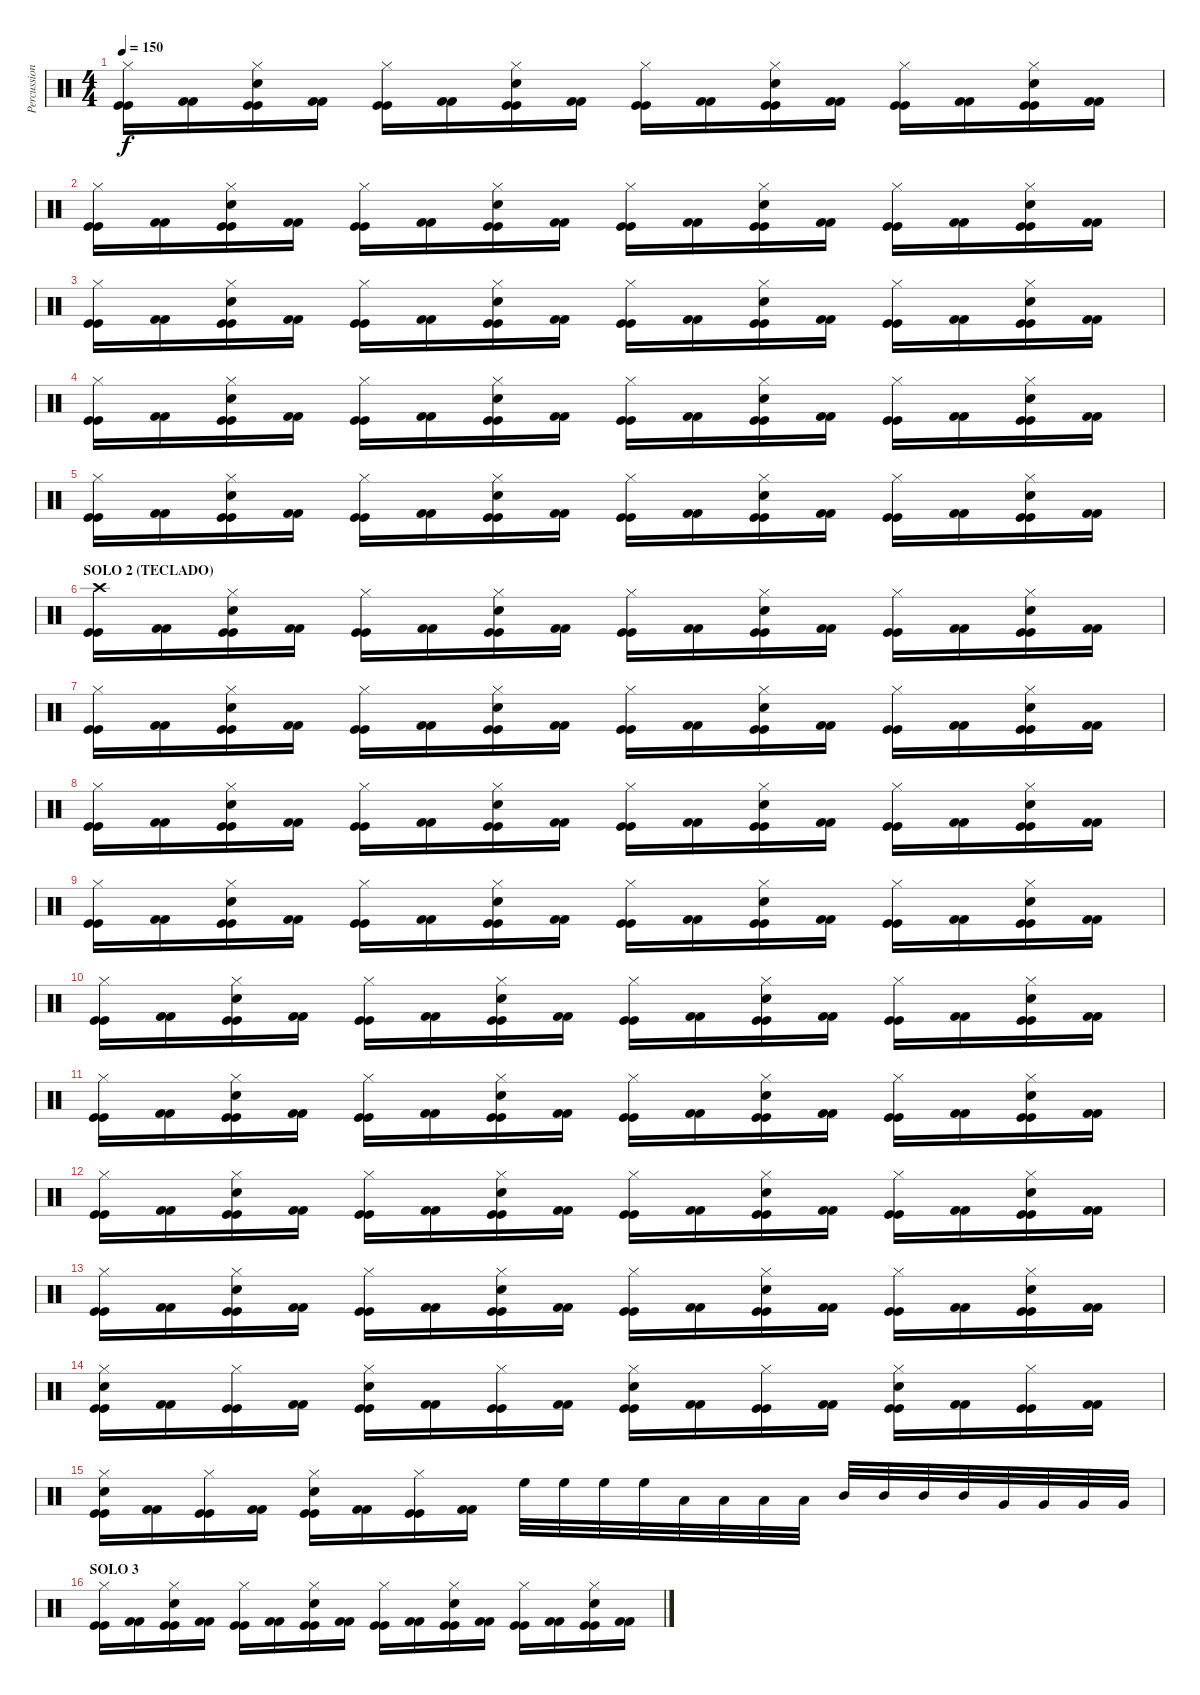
\track ("Percussion" "Percussion") {instrument percussion}
\staff {score}
\articulation defaults
\ts (4 4)
\tempo 150
\clef neutral
\ks c
("Hi-Hat (closed)" "Kick (hit)" "Kick (hit)").16{dy f} ("Kick (hit) 2" "Kick (hit) 2").16 ("Hi-Hat (closed)" "Electric Snare (hit)" "Kick (hit)" "Kick (hit)").16 ("Kick (hit) 2" "Kick (hit) 2").16 ("Hi-Hat (closed)" "Kick (hit)" "Kick (hit)").16 ("Kick (hit) 2" "Kick (hit) 2").16 ("Hi-Hat (closed)" "Electric Snare (hit)" "Kick (hit)" "Kick (hit)").16 ("Kick (hit) 2" "Kick (hit) 2").16 ("Hi-Hat (closed)" "Kick (hit)" "Kick (hit)").16 ("Kick (hit) 2" "Kick (hit) 2").16 ("Hi-Hat (closed)" "Electric Snare (hit)" "Kick (hit)" "Kick (hit)").16 ("Kick (hit) 2" "Kick (hit) 2").16 ("Hi-Hat (closed)" "Kick (hit)" "Kick (hit)").16 ("Kick (hit) 2" "Kick (hit) 2").16 ("Hi-Hat (closed)" "Electric Snare (hit)" "Kick (hit)" "Kick (hit)").16 ("Kick (hit) 2" "Kick (hit) 2").16 |
("Hi-Hat (closed)" "Kick (hit)" "Kick (hit)").16 ("Kick (hit) 2" "Kick (hit) 2").16 ("Hi-Hat (closed)" "Electric Snare (hit)" "Kick (hit)" "Kick (hit)").16 ("Kick (hit) 2" "Kick (hit) 2").16 ("Hi-Hat (closed)" "Kick (hit)" "Kick (hit)").16 ("Kick (hit) 2" "Kick (hit) 2").16 ("Hi-Hat (closed)" "Electric Snare (hit)" "Kick (hit)" "Kick (hit)").16 ("Kick (hit) 2" "Kick (hit) 2").16 ("Hi-Hat (closed)" "Kick (hit)" "Kick (hit)").16 ("Kick (hit) 2" "Kick (hit) 2").16 ("Hi-Hat (closed)" "Electric Snare (hit)" "Kick (hit)" "Kick (hit)").16 ("Kick (hit) 2" "Kick (hit) 2").16 ("Hi-Hat (closed)" "Kick (hit)" "Kick (hit)").16 ("Kick (hit) 2" "Kick (hit) 2").16 ("Hi-Hat (closed)" "Electric Snare (hit)" "Kick (hit)" "Kick (hit)").16 ("Kick (hit) 2" "Kick (hit) 2").16 |
("Hi-Hat (closed)" "Kick (hit)" "Kick (hit)").16 ("Kick (hit) 2" "Kick (hit) 2").16 ("Hi-Hat (closed)" "Electric Snare (hit)" "Kick (hit)" "Kick (hit)").16 ("Kick (hit) 2" "Kick (hit) 2").16 ("Hi-Hat (closed)" "Kick (hit)" "Kick (hit)").16 ("Kick (hit) 2" "Kick (hit) 2").16 ("Hi-Hat (closed)" "Electric Snare (hit)" "Kick (hit)" "Kick (hit)").16 ("Kick (hit) 2" "Kick (hit) 2").16 ("Hi-Hat (closed)" "Kick (hit)" "Kick (hit)").16 ("Kick (hit) 2" "Kick (hit) 2").16 ("Hi-Hat (closed)" "Electric Snare (hit)" "Kick (hit)" "Kick (hit)").16 ("Kick (hit) 2" "Kick (hit) 2").16 ("Hi-Hat (closed)" "Kick (hit)" "Kick (hit)").16 ("Kick (hit) 2" "Kick (hit) 2").16 ("Hi-Hat (closed)" "Electric Snare (hit)" "Kick (hit)" "Kick (hit)").16 ("Kick (hit) 2" "Kick (hit) 2").16 |
("Hi-Hat (closed)" "Kick (hit)" "Kick (hit)").16 ("Kick (hit) 2" "Kick (hit) 2").16 ("Hi-Hat (closed)" "Electric Snare (hit)" "Kick (hit)" "Kick (hit)").16 ("Kick (hit) 2" "Kick (hit) 2").16 ("Hi-Hat (closed)" "Kick (hit)" "Kick (hit)").16 ("Kick (hit) 2" "Kick (hit) 2").16 ("Hi-Hat (closed)" "Electric Snare (hit)" "Kick (hit)" "Kick (hit)").16 ("Kick (hit) 2" "Kick (hit) 2").16 ("Hi-Hat (closed)" "Kick (hit)" "Kick (hit)").16 ("Kick (hit) 2" "Kick (hit) 2").16 ("Hi-Hat (closed)" "Electric Snare (hit)" "Kick (hit)" "Kick (hit)").16 ("Kick (hit) 2" "Kick (hit) 2").16 ("Hi-Hat (closed)" "Kick (hit)" "Kick (hit)").16 ("Kick (hit) 2" "Kick (hit) 2").16 ("Hi-Hat (closed)" "Electric Snare (hit)" "Kick (hit)" "Kick (hit)").16 ("Kick (hit) 2" "Kick (hit) 2").16 |
("Hi-Hat (closed)" "Kick (hit)" "Kick (hit)").16 ("Kick (hit) 2" "Kick (hit) 2").16 ("Hi-Hat (closed)" "Electric Snare (hit)" "Kick (hit)" "Kick (hit)").16 ("Kick (hit) 2" "Kick (hit) 2").16 ("Hi-Hat (closed)" "Kick (hit)" "Kick (hit)").16 ("Kick (hit) 2" "Kick (hit) 2").16 ("Hi-Hat (closed)" "Electric Snare (hit)" "Kick (hit)" "Kick (hit)").16 ("Kick (hit) 2" "Kick (hit) 2").16 ("Hi-Hat (closed)" "Kick (hit)" "Kick (hit)").16 ("Kick (hit) 2" "Kick (hit) 2").16 ("Hi-Hat (closed)" "Electric Snare (hit)" "Kick (hit)" "Kick (hit)").16 ("Kick (hit) 2" "Kick (hit) 2").16 ("Hi-Hat (closed)" "Kick (hit)" "Kick (hit)").16 ("Kick (hit) 2" "Kick (hit) 2").16 ("Hi-Hat (closed)" "Electric Snare (hit)" "Kick (hit)" "Kick (hit)").16 ("Kick (hit) 2" "Kick (hit) 2").16 |
\section ("" "SOLO 2 (TECLADO)")
("Crash high (hit)" "Kick (hit)" "Kick (hit)").16 ("Kick (hit) 2" "Kick (hit) 2").16 ("Hi-Hat (closed)" "Electric Snare (hit)" "Kick (hit)" "Kick (hit)").16 ("Kick (hit) 2" "Kick (hit) 2").16 ("Hi-Hat (closed)" "Kick (hit)" "Kick (hit)").16 ("Kick (hit) 2" "Kick (hit) 2").16 ("Hi-Hat (closed)" "Electric Snare (hit)" "Kick (hit)" "Kick (hit)").16 ("Kick (hit) 2" "Kick (hit) 2").16 ("Hi-Hat (closed)" "Kick (hit)" "Kick (hit)").16 ("Kick (hit) 2" "Kick (hit) 2").16 ("Hi-Hat (closed)" "Electric Snare (hit)" "Kick (hit)" "Kick (hit)").16 ("Kick (hit) 2" "Kick (hit) 2").16 ("Hi-Hat (closed)" "Kick (hit)" "Kick (hit)").16 ("Kick (hit) 2" "Kick (hit) 2").16 ("Hi-Hat (closed)" "Electric Snare (hit)" "Kick (hit)" "Kick (hit)").16 ("Kick (hit) 2" "Kick (hit) 2").16 |
("Hi-Hat (closed)" "Kick (hit)" "Kick (hit)").16 ("Kick (hit) 2" "Kick (hit) 2").16 ("Hi-Hat (closed)" "Electric Snare (hit)" "Kick (hit)" "Kick (hit)").16 ("Kick (hit) 2" "Kick (hit) 2").16 ("Hi-Hat (closed)" "Kick (hit)" "Kick (hit)").16 ("Kick (hit) 2" "Kick (hit) 2").16 ("Hi-Hat (closed)" "Electric Snare (hit)" "Kick (hit)" "Kick (hit)").16 ("Kick (hit) 2" "Kick (hit) 2").16 ("Hi-Hat (closed)" "Kick (hit)" "Kick (hit)").16 ("Kick (hit) 2" "Kick (hit) 2").16 ("Hi-Hat (closed)" "Electric Snare (hit)" "Kick (hit)" "Kick (hit)").16 ("Kick (hit) 2" "Kick (hit) 2").16 ("Hi-Hat (closed)" "Kick (hit)" "Kick (hit)").16 ("Kick (hit) 2" "Kick (hit) 2").16 ("Hi-Hat (closed)" "Electric Snare (hit)" "Kick (hit)" "Kick (hit)").16 ("Kick (hit) 2" "Kick (hit) 2").16 |
("Hi-Hat (closed)" "Kick (hit)" "Kick (hit)").16 ("Kick (hit) 2" "Kick (hit) 2").16 ("Hi-Hat (closed)" "Electric Snare (hit)" "Kick (hit)" "Kick (hit)").16 ("Kick (hit) 2" "Kick (hit) 2").16 ("Hi-Hat (closed)" "Kick (hit)" "Kick (hit)").16 ("Kick (hit) 2" "Kick (hit) 2").16 ("Hi-Hat (closed)" "Electric Snare (hit)" "Kick (hit)" "Kick (hit)").16 ("Kick (hit) 2" "Kick (hit) 2").16 ("Hi-Hat (closed)" "Kick (hit)" "Kick (hit)").16 ("Kick (hit) 2" "Kick (hit) 2").16 ("Hi-Hat (closed)" "Electric Snare (hit)" "Kick (hit)" "Kick (hit)").16 ("Kick (hit) 2" "Kick (hit) 2").16 ("Hi-Hat (closed)" "Kick (hit)" "Kick (hit)").16 ("Kick (hit) 2" "Kick (hit) 2").16 ("Hi-Hat (closed)" "Electric Snare (hit)" "Kick (hit)" "Kick (hit)").16 ("Kick (hit) 2" "Kick (hit) 2").16 |
("Hi-Hat (closed)" "Kick (hit)" "Kick (hit)").16 ("Kick (hit) 2" "Kick (hit) 2").16 ("Hi-Hat (closed)" "Electric Snare (hit)" "Kick (hit)" "Kick (hit)").16 ("Kick (hit) 2" "Kick (hit) 2").16 ("Hi-Hat (closed)" "Kick (hit)" "Kick (hit)").16 ("Kick (hit) 2" "Kick (hit) 2").16 ("Hi-Hat (closed)" "Electric Snare (hit)" "Kick (hit)" "Kick (hit)").16 ("Kick (hit) 2" "Kick (hit) 2").16 ("Hi-Hat (closed)" "Kick (hit)" "Kick (hit)").16 ("Kick (hit) 2" "Kick (hit) 2").16 ("Hi-Hat (closed)" "Electric Snare (hit)" "Kick (hit)" "Kick (hit)").16 ("Kick (hit) 2" "Kick (hit) 2").16 ("Hi-Hat (closed)" "Kick (hit)" "Kick (hit)").16 ("Kick (hit) 2" "Kick (hit) 2").16 ("Hi-Hat (closed)" "Electric Snare (hit)" "Kick (hit)" "Kick (hit)").16 ("Kick (hit) 2" "Kick (hit) 2").16 |
("Hi-Hat (closed)" "Kick (hit)" "Kick (hit)").16 ("Kick (hit) 2" "Kick (hit) 2").16 ("Hi-Hat (closed)" "Electric Snare (hit)" "Kick (hit)" "Kick (hit)").16 ("Kick (hit) 2" "Kick (hit) 2").16 ("Hi-Hat (closed)" "Kick (hit)" "Kick (hit)").16 ("Kick (hit) 2" "Kick (hit) 2").16 ("Hi-Hat (closed)" "Electric Snare (hit)" "Kick (hit)" "Kick (hit)").16 ("Kick (hit) 2" "Kick (hit) 2").16 ("Hi-Hat (closed)" "Kick (hit)" "Kick (hit)").16 ("Kick (hit) 2" "Kick (hit) 2").16 ("Hi-Hat (closed)" "Electric Snare (hit)" "Kick (hit)" "Kick (hit)").16 ("Kick (hit) 2" "Kick (hit) 2").16 ("Hi-Hat (closed)" "Kick (hit)" "Kick (hit)").16 ("Kick (hit) 2" "Kick (hit) 2").16 ("Hi-Hat (closed)" "Electric Snare (hit)" "Kick (hit)" "Kick (hit)").16 ("Kick (hit) 2" "Kick (hit) 2").16 |
("Hi-Hat (closed)" "Kick (hit)" "Kick (hit)").16 ("Kick (hit) 2" "Kick (hit) 2").16 ("Hi-Hat (closed)" "Electric Snare (hit)" "Kick (hit)" "Kick (hit)").16 ("Kick (hit) 2" "Kick (hit) 2").16 ("Hi-Hat (closed)" "Kick (hit)" "Kick (hit)").16 ("Kick (hit) 2" "Kick (hit) 2").16 ("Hi-Hat (closed)" "Electric Snare (hit)" "Kick (hit)" "Kick (hit)").16 ("Kick (hit) 2" "Kick (hit) 2").16 ("Hi-Hat (closed)" "Kick (hit)" "Kick (hit)").16 ("Kick (hit) 2" "Kick (hit) 2").16 ("Hi-Hat (closed)" "Electric Snare (hit)" "Kick (hit)" "Kick (hit)").16 ("Kick (hit) 2" "Kick (hit) 2").16 ("Hi-Hat (closed)" "Kick (hit)" "Kick (hit)").16 ("Kick (hit) 2" "Kick (hit) 2").16 ("Hi-Hat (closed)" "Electric Snare (hit)" "Kick (hit)" "Kick (hit)").16 ("Kick (hit) 2" "Kick (hit) 2").16 |
("Hi-Hat (closed)" "Kick (hit)" "Kick (hit)").16 ("Kick (hit) 2" "Kick (hit) 2").16 ("Hi-Hat (closed)" "Electric Snare (hit)" "Kick (hit)" "Kick (hit)").16 ("Kick (hit) 2" "Kick (hit) 2").16 ("Hi-Hat (closed)" "Kick (hit)" "Kick (hit)").16 ("Kick (hit) 2" "Kick (hit) 2").16 ("Hi-Hat (closed)" "Electric Snare (hit)" "Kick (hit)" "Kick (hit)").16 ("Kick (hit) 2" "Kick (hit) 2").16 ("Hi-Hat (closed)" "Kick (hit)" "Kick (hit)").16 ("Kick (hit) 2" "Kick (hit) 2").16 ("Hi-Hat (closed)" "Electric Snare (hit)" "Kick (hit)" "Kick (hit)").16 ("Kick (hit) 2" "Kick (hit) 2").16 ("Hi-Hat (closed)" "Kick (hit)" "Kick (hit)").16 ("Kick (hit) 2" "Kick (hit) 2").16 ("Hi-Hat (closed)" "Electric Snare (hit)" "Kick (hit)" "Kick (hit)").16 ("Kick (hit) 2" "Kick (hit) 2").16 |
("Hi-Hat (closed)" "Kick (hit)" "Kick (hit)").16 ("Kick (hit) 2" "Kick (hit) 2").16 ("Hi-Hat (closed)" "Electric Snare (hit)" "Kick (hit)" "Kick (hit)").16 ("Kick (hit) 2" "Kick (hit) 2").16 ("Hi-Hat (closed)" "Kick (hit)" "Kick (hit)").16 ("Kick (hit) 2" "Kick (hit) 2").16 ("Hi-Hat (closed)" "Electric Snare (hit)" "Kick (hit)" "Kick (hit)").16 ("Kick (hit) 2" "Kick (hit) 2").16 ("Hi-Hat (closed)" "Kick (hit)" "Kick (hit)").16 ("Kick (hit) 2" "Kick (hit) 2").16 ("Hi-Hat (closed)" "Electric Snare (hit)" "Kick (hit)" "Kick (hit)").16 ("Kick (hit) 2" "Kick (hit) 2").16 ("Hi-Hat (closed)" "Kick (hit)" "Kick (hit)").16 ("Kick (hit) 2" "Kick (hit) 2").16 ("Hi-Hat (closed)" "Electric Snare (hit)" "Kick (hit)" "Kick (hit)").16 ("Kick (hit) 2" "Kick (hit) 2").16 |
("Hi-Hat (closed)" "Electric Snare (hit)" "Kick (hit)" "Kick (hit)").16 ("Kick (hit) 2" "Kick (hit) 2").16 ("Hi-Hat (closed)" "Kick (hit)" "Kick (hit)").16 ("Kick (hit) 2" "Kick (hit) 2").16 ("Hi-Hat (closed)" "Electric Snare (hit)" "Kick (hit)" "Kick (hit)").16 ("Kick (hit) 2" "Kick (hit) 2").16 ("Hi-Hat (closed)" "Kick (hit)" "Kick (hit)").16 ("Kick (hit) 2" "Kick (hit) 2").16 ("Hi-Hat (closed)" "Electric Snare (hit)" "Kick (hit)" "Kick (hit)").16 ("Kick (hit) 2" "Kick (hit) 2").16 ("Hi-Hat (closed)" "Kick (hit)" "Kick (hit)").16 ("Kick (hit) 2" "Kick (hit) 2").16 ("Hi-Hat (closed)" "Electric Snare (hit)" "Kick (hit)" "Kick (hit)").16 ("Kick (hit) 2" "Kick (hit) 2").16 ("Hi-Hat (closed)" "Kick (hit)" "Kick (hit)").16 ("Kick (hit) 2" "Kick (hit) 2").16 |
("Hi-Hat (closed)" "Electric Snare (hit)" "Kick (hit)" "Kick (hit)").16 ("Kick (hit) 2" "Kick (hit) 2").16 ("Hi-Hat (closed)" "Kick (hit)" "Kick (hit)").16 ("Kick (hit) 2" "Kick (hit) 2").16 ("Hi-Hat (closed)" "Electric Snare (hit)" "Kick (hit)" "Kick (hit)").16 ("Kick (hit) 2" "Kick (hit) 2").16 ("Hi-Hat (closed)" "Kick (hit)" "Kick (hit)").16 ("Kick (hit) 2" "Kick (hit) 2").16 "High Floor Tom (hit)".32 "High Floor Tom (hit)".32 "High Floor Tom (hit)".32 "High Floor Tom (hit)".32 "Low Tom (hit)".32 "Low Tom (hit)".32 "Low Tom (hit)".32 "Low Tom (hit)".32 "Mid Tom (hit)".32 "Mid Tom (hit)".32 "Mid Tom (hit)".32 "Mid Tom (hit)".32 "Very Low Tom (hit)".32 "Very Low Tom (hit)".32 "Very Low Tom (hit)".32 "Very Low Tom (hit)".32 |
\section ("" "SOLO 3")
("Hi-Hat (closed)" "Kick (hit)" "Kick (hit)").16 ("Kick (hit) 2" "Kick (hit) 2").16 ("Hi-Hat (closed)" "Electric Snare (hit)" "Kick (hit)" "Kick (hit)").16 ("Kick (hit) 2" "Kick (hit) 2").16 ("Hi-Hat (closed)" "Kick (hit)" "Kick (hit)").16 ("Kick (hit) 2" "Kick (hit) 2").16 ("Hi-Hat (closed)" "Electric Snare (hit)" "Kick (hit)" "Kick (hit)").16 ("Kick (hit) 2" "Kick (hit) 2").16 ("Hi-Hat (closed)" "Kick (hit)" "Kick (hit)").16 ("Kick (hit) 2" "Kick (hit) 2").16 ("Hi-Hat (closed)" "Electric Snare (hit)" "Kick (hit)" "Kick (hit)").16 ("Kick (hit) 2" "Kick (hit) 2").16 ("Hi-Hat (closed)" "Kick (hit)" "Kick (hit)").16 ("Kick (hit) 2" "Kick (hit) 2").16 ("Hi-Hat (closed)" "Electric Snare (hit)" "Kick (hit)" "Kick (hit)").16 ("Kick (hit) 2" "Kick (hit) 2").16
